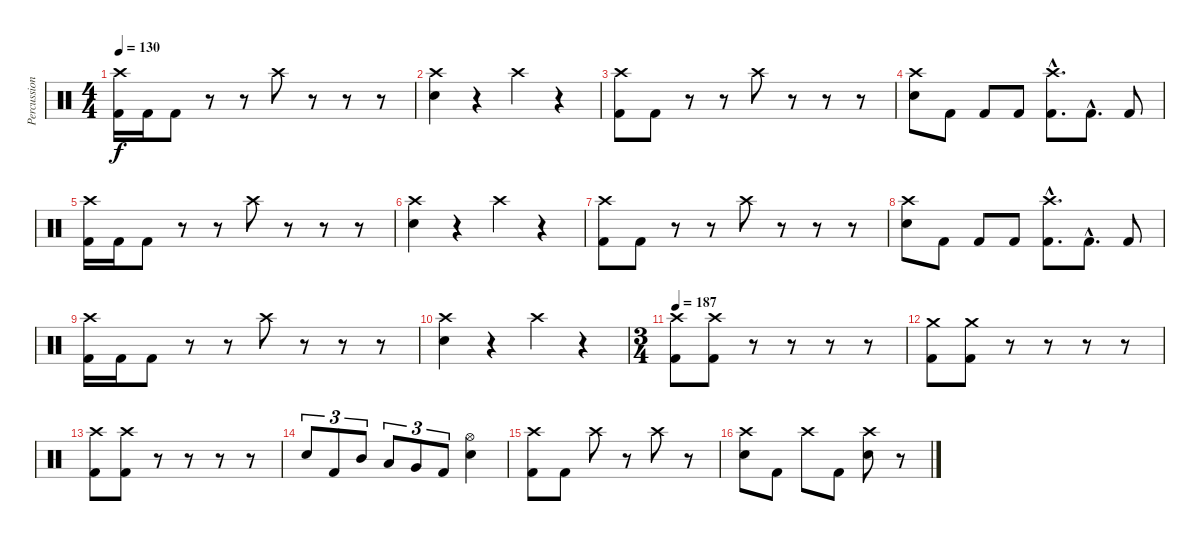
\track ("Percussion" "Percussion") {instrument percussion}
\staff {score}
\articulation defaults
\ts (4 4)
\tempo 130
\clef neutral
\ks c
("Crash high (hit)" "Kick (hit) 2").16{dy f} "Kick (hit) 2".16 "Kick (hit) 2".8 r.8 r.8 "Crash high (hit)".8 r.8 r.8 r.8 |
("Crash high (hit)" "Electric Snare (hit)").4 r.4 "Crash high (hit)".4 r.4 |
("Crash high (hit)" "Kick (hit) 2").8 "Kick (hit) 2".8 r.8 r.8 "Crash high (hit)".8 r.8 r.8 r.8 |
("Crash high (hit)" "Electric Snare (hit)").8 "Kick (hit) 2".8 "Kick (hit) 2".8 "Kick (hit) 2".8 ("Crash high (hit)"{hac} "Kick (hit) 2"{hac}).8{d} "Kick (hit) 2"{hac}.8{d} "Kick (hit) 2".8 |
("Crash high (hit)" "Kick (hit) 2").16 "Kick (hit) 2".16 "Kick (hit) 2".8 r.8 r.8 "Crash high (hit)".8 r.8 r.8 r.8 |
("Crash high (hit)" "Electric Snare (hit)").4 r.4 "Crash high (hit)".4 r.4 |
("Crash high (hit)" "Kick (hit) 2").8 "Kick (hit) 2".8 r.8 r.8 "Crash high (hit)".8 r.8 r.8 r.8 |
("Crash high (hit)" "Electric Snare (hit)").8 "Kick (hit) 2".8 "Kick (hit) 2".8 "Kick (hit) 2".8 ("Crash high (hit)"{hac} "Kick (hit) 2"{hac}).8{d} "Kick (hit) 2"{hac}.8{d} "Kick (hit) 2".8 |
("Crash high (hit)" "Kick (hit) 2").16 "Kick (hit) 2".16 "Kick (hit) 2".8 r.8 r.8 "Crash high (hit)".8 r.8 r.8 r.8 |
("Crash high (hit)" "Electric Snare (hit)").4 r.4 "Crash high (hit)".4 r.4 |
\ts (3 4)
\tempo 187
("Crash high (hit)" "Kick (hit) 2").8 ("Crash high (hit)" "Kick (hit) 2").8 r.8 r.8 r.8 r.8 |
("Crash medium (hit)" "Kick (hit) 2").8 ("Crash medium (hit)" "Kick (hit) 2").8 r.8 r.8 r.8 r.8 |
("Crash high (hit)" "Kick (hit) 2").8 ("Crash high (hit)" "Kick (hit) 2").8 r.8 r.8 r.8 r.8 |
"Electric Snare (hit)".8{tu (3 2)} "Kick (hit) 2".8{tu (3 2)} "Mid Tom (hit)".8{tu (3 2)} "Low Tom (hit)".8{tu (3 2)} "Very Low Tom (hit)".8{tu (3 2)} "Kick (hit) 2".8{tu (3 2)} ("Hi-Hat (open)" "Electric Snare (hit)").4 |
("Crash high (hit)" "Kick (hit) 2").8 "Kick (hit) 2".8 "Crash high (hit)".8 r.8 "Crash high (hit)".8 r.8 |
("Crash high (hit)" "Electric Snare (hit)").8 "Kick (hit) 2".8 "Crash high (hit)".8 "Kick (hit) 2".8 ("Crash high (hit)" "Electric Snare (hit)").8 r.8
